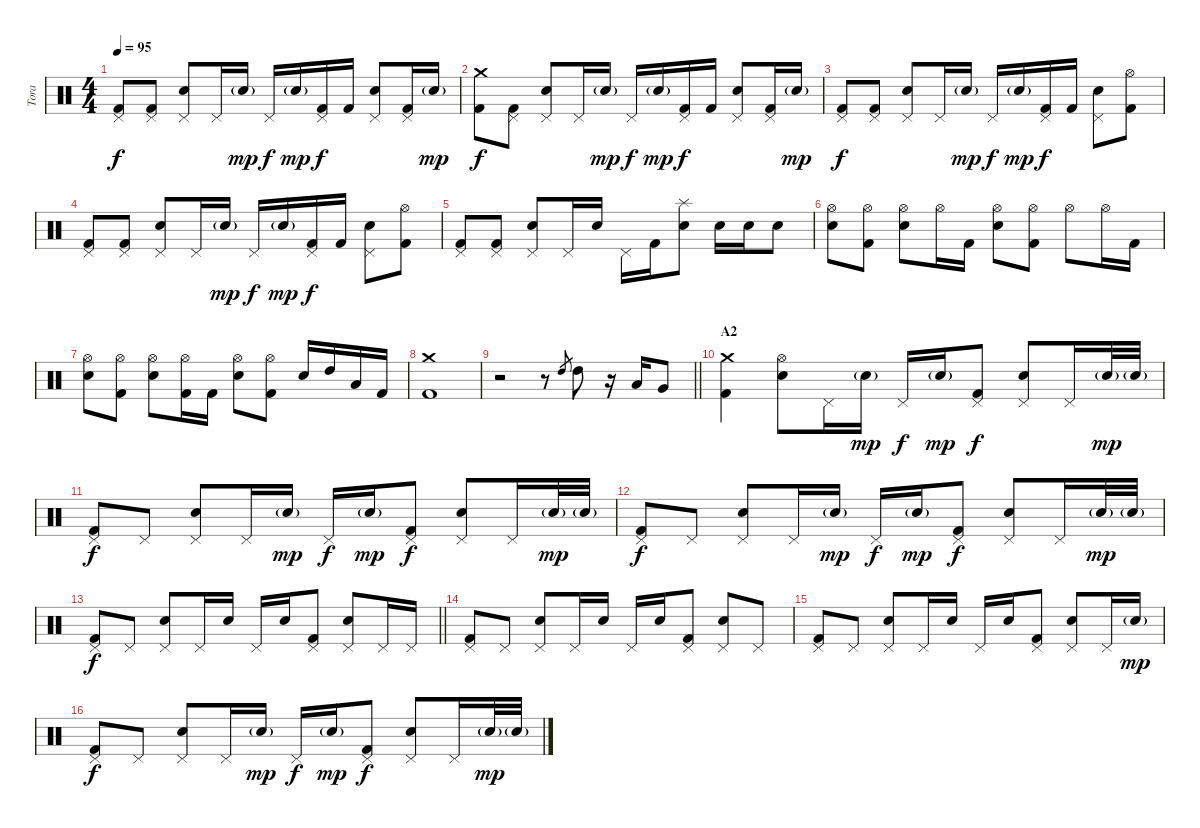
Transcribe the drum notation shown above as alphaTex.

\track ("Tora" "Tora") {instrument percussion}
\staff {score}
\articulation defaults
\ts (4 4)
\tempo 95
\clef neutral
\ks c
("Pedal Hi-Hat (hit)" "Kick (hit) 2").8{dy f} ("Pedal Hi-Hat (hit)" "Kick (hit) 2").8 ("Pedal Hi-Hat (hit)" "Electric Snare (hit)").8 "Pedal Hi-Hat (hit)".16 "Electric Snare (hit)"{g}.16{dy mp} "Pedal Hi-Hat (hit)".16{dy f} "Electric Snare (hit)"{g}.16{dy mp} ("Pedal Hi-Hat (hit)" "Kick (hit) 2").16{dy f} "Kick (hit) 2".16 ("Pedal Hi-Hat (hit)" "Electric Snare (hit)").8 ("Pedal Hi-Hat (hit)" "Kick (hit) 2").16 "Electric Snare (hit)"{g}.16{dy mp} |
("Crash medium (hit)" "Kick (hit) 2").8{dy f} ("Pedal Hi-Hat (hit)" "Kick (hit) 2").8 ("Pedal Hi-Hat (hit)" "Electric Snare (hit)").8 "Pedal Hi-Hat (hit)".16 "Electric Snare (hit)"{g}.16{dy mp} "Pedal Hi-Hat (hit)".16{dy f} "Electric Snare (hit)"{g}.16{dy mp} ("Pedal Hi-Hat (hit)" "Kick (hit) 2").16{dy f} "Kick (hit) 2".16 ("Pedal Hi-Hat (hit)" "Electric Snare (hit)").8 ("Pedal Hi-Hat (hit)" "Kick (hit) 2").16 "Electric Snare (hit)"{g}.16{dy mp} |
("Pedal Hi-Hat (hit)" "Kick (hit) 2").8{dy f} ("Pedal Hi-Hat (hit)" "Kick (hit) 2").8 ("Pedal Hi-Hat (hit)" "Electric Snare (hit)").8 "Pedal Hi-Hat (hit)".16 "Electric Snare (hit)"{g}.16{dy mp} "Pedal Hi-Hat (hit)".16{dy f} "Electric Snare (hit)"{g}.16{dy mp} ("Pedal Hi-Hat (hit)" "Kick (hit) 2").16{dy f} "Kick (hit) 2".16 ("Pedal Hi-Hat (hit)" "Electric Snare (hit)").8 ("Hi-Hat (open)" "Kick (hit) 2").8 |
("Pedal Hi-Hat (hit)" "Kick (hit) 2").8 ("Pedal Hi-Hat (hit)" "Kick (hit) 2").8 ("Pedal Hi-Hat (hit)" "Electric Snare (hit)").8 "Pedal Hi-Hat (hit)".16 "Electric Snare (hit)"{g}.16{dy mp} "Pedal Hi-Hat (hit)".16{dy f} "Electric Snare (hit)"{g}.16{dy mp} ("Pedal Hi-Hat (hit)" "Kick (hit) 2").16{dy f} "Kick (hit) 2".16 ("Pedal Hi-Hat (hit)" "Electric Snare (hit)").8 ("Hi-Hat (open)" "Kick (hit) 2").8 |
("Pedal Hi-Hat (hit)" "Kick (hit) 2").8 ("Pedal Hi-Hat (hit)" "Kick (hit) 2").8 ("Pedal Hi-Hat (hit)" "Electric Snare (hit)").8 "Pedal Hi-Hat (hit)".16 "Electric Snare (hit)".16 "Pedal Hi-Hat (hit)".16 "Kick (hit) 2".16 ("Splash (hit)" "Electric Snare (hit)").8 "Electric Snare (hit)".16 "Electric Snare (hit)".16 "Electric Snare (hit)".8 |
("Hi-Hat (open)" "Electric Snare (hit)").8 ("Hi-Hat (open)" "Kick (hit) 2").8 ("Hi-Hat (open)" "Electric Snare (hit)").8 "Hi-Hat (open)".16 "Kick (hit) 2".16 ("Hi-Hat (open)" "Electric Snare (hit)").8 ("Hi-Hat (open)" "Kick (hit) 2").8 "Hi-Hat (open)".8 "Hi-Hat (open)".16 "Kick (hit) 2".16 |
("Hi-Hat (open)" "Electric Snare (hit)").8 ("Hi-Hat (open)" "Kick (hit) 2").8 ("Hi-Hat (open)" "Electric Snare (hit)").8 ("Hi-Hat (open)" "Kick (hit) 2").16 "Kick (hit) 2".16 ("Hi-Hat (open)" "Electric Snare (hit)").8 ("Hi-Hat (open)" "Kick (hit) 2").8 "Electric Snare (hit)".16 "High Tom (hit)".16 "Low Tom (hit)".16 "Kick (hit) 2".16 |
("Crash medium (hit)" "Kick (hit) 2").1 |
\barLineRight lightlight
r.2 r.8 "High Tom (hit)".8{gr} "High Tom (hit)".8 r.16 "Low Tom (hit)".16 "Very Low Tom (hit)".8 |
\section ("" "A2")
("Crash medium (hit)" "Kick (hit) 2").4 ("Hi-Hat (open)" "Electric Snare (hit)").8 "Pedal Hi-Hat (hit)".16 "Electric Snare (hit)"{g}.16{dy mp} "Pedal Hi-Hat (hit)".16{dy f} "Electric Snare (hit)"{g}.16{dy mp} ("Pedal Hi-Hat (hit)" "Kick (hit) 2").8{dy f} ("Pedal Hi-Hat (hit)" "Electric Snare (hit)").8 "Pedal Hi-Hat (hit)".16 "Electric Snare (hit)"{g}.32{dy mp} "Electric Snare (hit)"{g}.32 |
("Pedal Hi-Hat (hit)" "Kick (hit) 2").8{dy f} "Pedal Hi-Hat (hit)".8 ("Pedal Hi-Hat (hit)" "Electric Snare (hit)").8 "Pedal Hi-Hat (hit)".16 "Electric Snare (hit)"{g}.16{dy mp} "Pedal Hi-Hat (hit)".16{dy f} "Electric Snare (hit)"{g}.16{dy mp} ("Pedal Hi-Hat (hit)" "Kick (hit) 2").8{dy f} ("Pedal Hi-Hat (hit)" "Electric Snare (hit)").8 "Pedal Hi-Hat (hit)".16 "Electric Snare (hit)"{g}.32{dy mp} "Electric Snare (hit)"{g}.32 |
("Pedal Hi-Hat (hit)" "Kick (hit) 2").8{dy f} "Pedal Hi-Hat (hit)".8 ("Pedal Hi-Hat (hit)" "Electric Snare (hit)").8 "Pedal Hi-Hat (hit)".16 "Electric Snare (hit)"{g}.16{dy mp} "Pedal Hi-Hat (hit)".16{dy f} "Electric Snare (hit)"{g}.16{dy mp} ("Pedal Hi-Hat (hit)" "Kick (hit) 2").8{dy f} ("Pedal Hi-Hat (hit)" "Electric Snare (hit)").8 "Pedal Hi-Hat (hit)".16 "Electric Snare (hit)"{g}.32{dy mp} "Electric Snare (hit)"{g}.32 |
\barLineRight lightlight
("Pedal Hi-Hat (hit)" "Kick (hit) 2").8{dy f} "Pedal Hi-Hat (hit)".8 ("Pedal Hi-Hat (hit)" "Electric Snare (hit)").8 "Pedal Hi-Hat (hit)".16 "Electric Snare (hit)".16 "Pedal Hi-Hat (hit)".16 "Electric Snare (hit)".16 ("Pedal Hi-Hat (hit)" "Kick (hit) 2").8 ("Pedal Hi-Hat (hit)" "Electric Snare (hit)").8 "Pedal Hi-Hat (hit)".16 "Pedal Hi-Hat (hit)".16 |
("Pedal Hi-Hat (hit)" "Kick (hit) 2").8 "Pedal Hi-Hat (hit)".8 ("Pedal Hi-Hat (hit)" "Electric Snare (hit)").8 "Pedal Hi-Hat (hit)".16 "Electric Snare (hit)".16 "Pedal Hi-Hat (hit)".16 "Electric Snare (hit)".16 ("Pedal Hi-Hat (hit)" "Kick (hit) 2").8 ("Pedal Hi-Hat (hit)" "Electric Snare (hit)").8 "Pedal Hi-Hat (hit)".8 |
("Pedal Hi-Hat (hit)" "Kick (hit) 2").8 "Pedal Hi-Hat (hit)".8 ("Pedal Hi-Hat (hit)" "Electric Snare (hit)").8 "Pedal Hi-Hat (hit)".16 "Electric Snare (hit)".16 "Pedal Hi-Hat (hit)".16 "Electric Snare (hit)".16 ("Pedal Hi-Hat (hit)" "Kick (hit) 2").8 ("Pedal Hi-Hat (hit)" "Electric Snare (hit)").8 "Pedal Hi-Hat (hit)".16 "Electric Snare (hit)"{g}.16{dy mp} |
("Pedal Hi-Hat (hit)" "Kick (hit) 2").8{dy f} "Pedal Hi-Hat (hit)".8 ("Pedal Hi-Hat (hit)" "Electric Snare (hit)").8 "Pedal Hi-Hat (hit)".16 "Electric Snare (hit)"{g}.16{dy mp} "Pedal Hi-Hat (hit)".16{dy f} "Electric Snare (hit)"{g}.16{dy mp} ("Pedal Hi-Hat (hit)" "Kick (hit) 2").8{dy f} ("Pedal Hi-Hat (hit)" "Electric Snare (hit)").8 "Pedal Hi-Hat (hit)".16 "Electric Snare (hit)"{g}.32{dy mp} "Electric Snare (hit)"{g}.32
